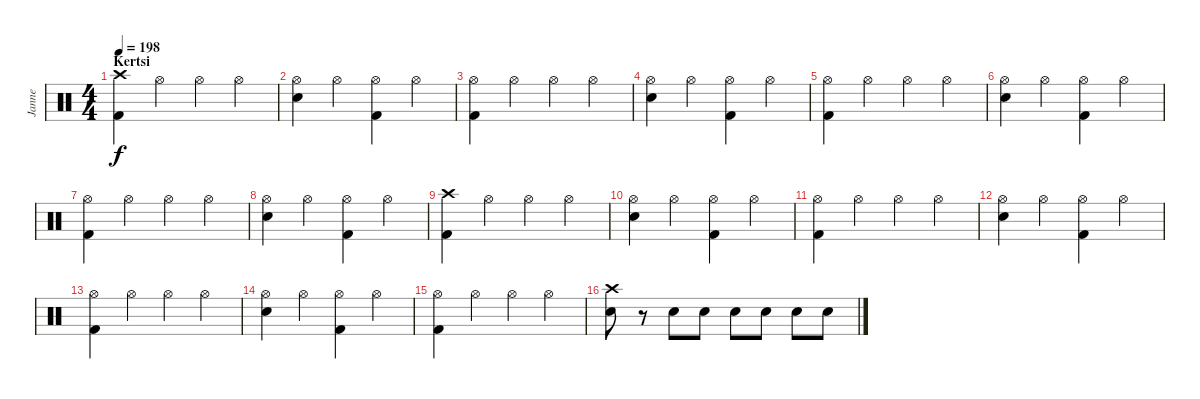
\track ("Janne" "Janne") {instrument percussion}
\staff {score}
\articulation defaults
\ts (4 4)
\section ("" "Kertsi")
\tempo 198
\clef neutral
\ks c
("Crash high (hit)" "Kick (hit) 2").4{dy f} "Hi-Hat (open)".4 "Hi-Hat (open)".4 "Hi-Hat (open)".4 |
("Hi-Hat (open)" "Electric Snare (hit)").4 "Hi-Hat (open)".4 ("Hi-Hat (open)" "Kick (hit) 2").4 "Hi-Hat (open)".4 |
("Hi-Hat (open)" "Kick (hit) 2").4 "Hi-Hat (open)".4 "Hi-Hat (open)".4 "Hi-Hat (open)".4 |
("Hi-Hat (open)" "Electric Snare (hit)").4 "Hi-Hat (open)".4 ("Hi-Hat (open)" "Kick (hit) 2").4 "Hi-Hat (open)".4 |
("Hi-Hat (open)" "Kick (hit) 2").4 "Hi-Hat (open)".4 "Hi-Hat (open)".4 "Hi-Hat (open)".4 |
("Hi-Hat (open)" "Electric Snare (hit)").4 "Hi-Hat (open)".4 ("Hi-Hat (open)" "Kick (hit) 2").4 "Hi-Hat (open)".4 |
("Hi-Hat (open)" "Kick (hit) 2").4 "Hi-Hat (open)".4 "Hi-Hat (open)".4 "Hi-Hat (open)".4 |
("Hi-Hat (open)" "Electric Snare (hit)").4 "Hi-Hat (open)".4 ("Hi-Hat (open)" "Kick (hit) 2").4 "Hi-Hat (open)".4 |
("Crash high (hit)" "Kick (hit) 2").4 "Hi-Hat (open)".4 "Hi-Hat (open)".4 "Hi-Hat (open)".4 |
("Hi-Hat (open)" "Electric Snare (hit)").4 "Hi-Hat (open)".4 ("Hi-Hat (open)" "Kick (hit) 2").4 "Hi-Hat (open)".4 |
("Hi-Hat (open)" "Kick (hit) 2").4 "Hi-Hat (open)".4 "Hi-Hat (open)".4 "Hi-Hat (open)".4 |
("Hi-Hat (open)" "Electric Snare (hit)").4 "Hi-Hat (open)".4 ("Hi-Hat (open)" "Kick (hit) 2").4 "Hi-Hat (open)".4 |
("Hi-Hat (open)" "Kick (hit) 2").4 "Hi-Hat (open)".4 "Hi-Hat (open)".4 "Hi-Hat (open)".4 |
("Hi-Hat (open)" "Electric Snare (hit)").4 "Hi-Hat (open)".4 ("Hi-Hat (open)" "Kick (hit) 2").4 "Hi-Hat (open)".4 |
("Hi-Hat (open)" "Kick (hit) 2").4 "Hi-Hat (open)".4 "Hi-Hat (open)".4 "Hi-Hat (open)".4 |
("Crash high (hit)" "Electric Snare (hit)").8 r.8 "Electric Snare (hit)".8 "Electric Snare (hit)".8 "Electric Snare (hit)".8 "Electric Snare (hit)".8 "Electric Snare (hit)".8 "Electric Snare (hit)".8
